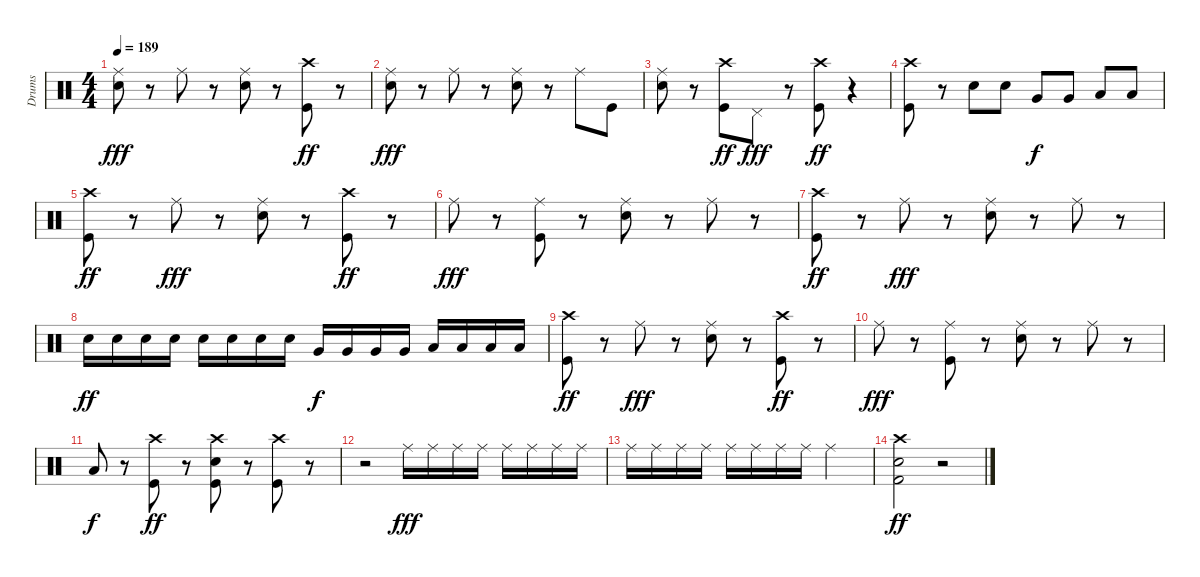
\track ("Drums" "Drums") {instrument percussion}
\staff {score}
\articulation defaults
\ts (4 4)
\tempo 189
\clef neutral
\ks c
("Snare (hit) 2" "Ride (middle)").8{dy fff} r.8 "Ride (middle)".8 r.8 ("Snare (hit) 2" "Ride (middle)").8 r.8 ("Kick (hit)" "Crash high (hit)").8{dy ff} r.8 |
("Snare (hit) 2" "Ride (middle)").8{dy fff} r.8 "Ride (middle)".8 r.8 ("Snare (hit) 2" "Ride (middle)").8 r.8 "Ride (middle)".8 "Kick (hit)".8 |
("Snare (hit) 2" "Ride (middle)").8 r.8 ("Kick (hit)" "Crash high (hit)").8{dy ff} "Pedal Hi-Hat (hit)".8{dy fff} r.8 ("Kick (hit)" "Crash high (hit)").8{dy ff} r.4 |
("Kick (hit)" "Crash high (hit)").8 r.8 "Snare (hit) 2".8 "Snare (hit) 2".8 "Very Low Tom (hit)".8{dy f} "Very Low Tom (hit)".8 "Low Floor Tom (hit)".8 "Low Floor Tom (hit)".8 |
("Kick (hit)" "Crash high (hit)").8{dy ff} r.8 "Ride (middle)".8{dy fff} r.8 ("Snare (hit) 2" "Ride (middle)").8 r.8 ("Kick (hit)" "Crash high (hit)").8{dy ff} r.8 |
"Ride (middle)".8{dy fff} r.8 ("Kick (hit)" "Ride (middle)").8 r.8 ("Snare (hit) 2" "Ride (middle)").8 r.8 "Ride (middle)".8 r.8 |
("Kick (hit)" "Crash high (hit)").8{dy ff} r.8 "Ride (middle)".8{dy fff} r.8 ("Snare (hit) 2" "Ride (middle)").8 r.8 "Ride (middle)".8 r.8 |
"Snare (hit) 2".16{dy ff} "Snare (hit) 2".16 "Snare (hit) 2".16 "Snare (hit) 2".16 "Snare (hit) 2".16 "Snare (hit) 2".16 "Snare (hit) 2".16 "Snare (hit) 2".16 "Very Low Tom (hit)".16{dy f} "Very Low Tom (hit)".16 "Very Low Tom (hit)".16 "Very Low Tom (hit)".16 "Low Floor Tom (hit)".16 "Low Floor Tom (hit)".16 "Low Floor Tom (hit)".16 "Low Floor Tom (hit)".16 |
("Kick (hit)" "Crash high (hit)").8{dy ff} r.8 "Ride (middle)".8{dy fff} r.8 ("Snare (hit) 2" "Ride (middle)").8 r.8 ("Kick (hit)" "Crash high (hit)").8{dy ff} r.8 |
"Ride (middle)".8{dy fff} r.8 ("Kick (hit)" "Ride (middle)").8 r.8 ("Snare (hit) 2" "Ride (middle)").8 r.8 "Ride (middle)".8 r.8 |
"Low Floor Tom (hit)".8{dy f} r.8 ("Kick (hit)" "Crash high (hit)").8{dy ff} r.8 ("Kick (hit)" "Snare (hit) 2" "Crash high (hit)").8 r.8 ("Kick (hit)" "Crash high (hit)").8 r.8 |
r.2 "Ride (middle)".16{dy fff} "Ride (middle)".16 "Ride (middle)".16 "Ride (middle)".16 "Ride (middle)".16 "Ride (middle)".16 "Ride (middle)".16 "Ride (middle)".16 |
"Ride (middle)".16 "Ride (middle)".16 "Ride (middle)".16 "Ride (middle)".16 "Ride (middle)".16 "Ride (middle)".16 "Ride (middle)".16 "Ride (middle)".16 "Ride (middle)".2 |
("Crash high (hit)" "Kick (hit) 2" "Electric Snare (hit)").2{dy ff} r.2
